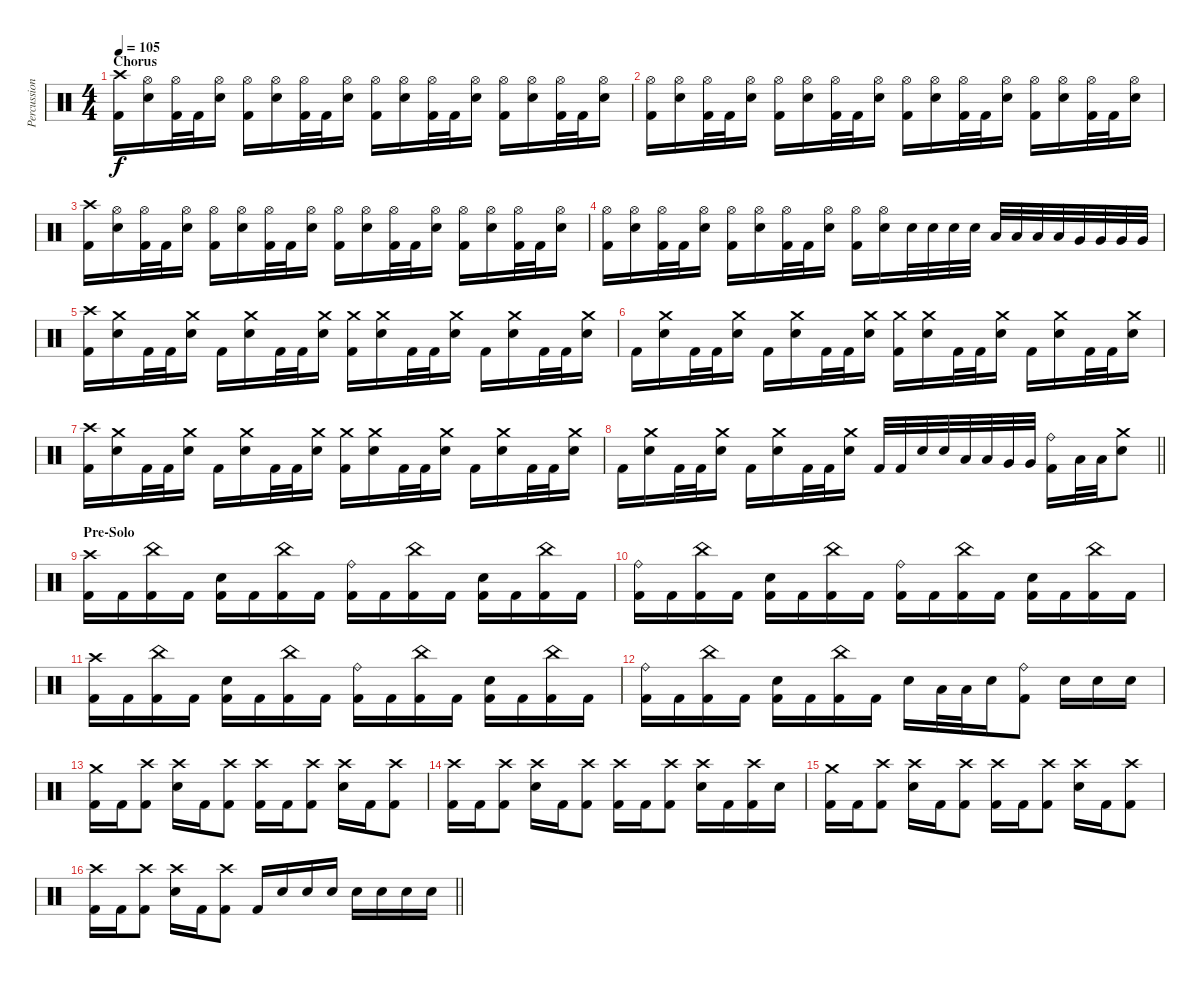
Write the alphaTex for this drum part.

\track ("Percussions" "Percussion") {instrument percussion}
\staff {score}
\articulation defaults
\ts (4 4)
\section ("" "Chorus")
\tempo 105
\clef neutral
\ks c
("Crash high (hit)" "Kick (hit) 2").16{dy f} ("Hi-Hat (open)" "Electric Snare (hit)").16 ("Hi-Hat (open)" "Kick (hit) 2").32 "Kick (hit) 2".32 ("Hi-Hat (open)" "Electric Snare (hit)").16 ("Hi-Hat (open)" "Kick (hit) 2").16 ("Hi-Hat (open)" "Electric Snare (hit)").16 ("Hi-Hat (open)" "Kick (hit) 2").32 "Kick (hit) 2".32 ("Hi-Hat (open)" "Electric Snare (hit)").16 ("Hi-Hat (open)" "Kick (hit) 2").16 ("Hi-Hat (open)" "Electric Snare (hit)").16 ("Hi-Hat (open)" "Kick (hit) 2").32 "Kick (hit) 2".32 ("Hi-Hat (open)" "Electric Snare (hit)").16 ("Hi-Hat (open)" "Kick (hit) 2").16 ("Hi-Hat (open)" "Electric Snare (hit)").16 ("Hi-Hat (open)" "Kick (hit) 2").32 "Kick (hit) 2".32 ("Hi-Hat (open)" "Electric Snare (hit)").16 |
("Hi-Hat (open)" "Kick (hit) 2").16 ("Hi-Hat (open)" "Electric Snare (hit)").16 ("Hi-Hat (open)" "Kick (hit) 2").32 "Kick (hit) 2".32 ("Hi-Hat (open)" "Electric Snare (hit)").16 ("Hi-Hat (open)" "Kick (hit) 2").16 ("Hi-Hat (open)" "Electric Snare (hit)").16 ("Hi-Hat (open)" "Kick (hit) 2").32 "Kick (hit) 2".32 ("Hi-Hat (open)" "Electric Snare (hit)").16 ("Hi-Hat (open)" "Kick (hit) 2").16 ("Hi-Hat (open)" "Electric Snare (hit)").16 ("Hi-Hat (open)" "Kick (hit) 2").32 "Kick (hit) 2".32 ("Hi-Hat (open)" "Electric Snare (hit)").16 ("Hi-Hat (open)" "Kick (hit) 2").16 ("Hi-Hat (open)" "Electric Snare (hit)").16 ("Hi-Hat (open)" "Kick (hit) 2").32 "Kick (hit) 2".32 ("Hi-Hat (open)" "Electric Snare (hit)").16 |
("Crash high (hit)" "Kick (hit) 2").16 ("Hi-Hat (open)" "Electric Snare (hit)").16 ("Hi-Hat (open)" "Kick (hit) 2").32 "Kick (hit) 2".32 ("Hi-Hat (open)" "Electric Snare (hit)").16 ("Hi-Hat (open)" "Kick (hit) 2").16 ("Hi-Hat (open)" "Electric Snare (hit)").16 ("Hi-Hat (open)" "Kick (hit) 2").32 "Kick (hit) 2".32 ("Hi-Hat (open)" "Electric Snare (hit)").16 ("Hi-Hat (open)" "Kick (hit) 2").16 ("Hi-Hat (open)" "Electric Snare (hit)").16 ("Hi-Hat (open)" "Kick (hit) 2").32 "Kick (hit) 2".32 ("Hi-Hat (open)" "Electric Snare (hit)").16 ("Hi-Hat (open)" "Kick (hit) 2").16 ("Hi-Hat (open)" "Electric Snare (hit)").16 ("Hi-Hat (open)" "Kick (hit) 2").32 "Kick (hit) 2".32 ("Hi-Hat (open)" "Electric Snare (hit)").16 |
("Hi-Hat (open)" "Kick (hit) 2").16 ("Hi-Hat (open)" "Electric Snare (hit)").16 ("Hi-Hat (open)" "Kick (hit) 2").32 "Kick (hit) 2".32 ("Hi-Hat (open)" "Electric Snare (hit)").16 ("Hi-Hat (open)" "Kick (hit) 2").16 ("Hi-Hat (open)" "Electric Snare (hit)").16 ("Hi-Hat (open)" "Kick (hit) 2").32 "Kick (hit) 2".32 ("Hi-Hat (open)" "Electric Snare (hit)").16 ("Hi-Hat (open)" "Kick (hit) 2").16 ("Hi-Hat (open)" "Electric Snare (hit)").16 "Electric Snare (hit)".32 "Electric Snare (hit)".32 "Electric Snare (hit)".32 "Electric Snare (hit)".32 "Low Tom (hit)".32 "Low Tom (hit)".32 "Low Tom (hit)".32 "Low Tom (hit)".32 "Very Low Tom (hit)".32 "Very Low Tom (hit)".32 "Very Low Tom (hit)".32 "Very Low Tom (hit)".32 |
("Crash high (hit)" "Kick (hit) 2").16 ("Crash medium (hit)" "Electric Snare (hit)").16 "Kick (hit) 2".32 "Kick (hit) 2".32 ("Crash medium (hit)" "Electric Snare (hit)").16 "Kick (hit) 2".16 ("Crash medium (hit)" "Electric Snare (hit)").16 "Kick (hit) 2".32 "Kick (hit) 2".32 ("Crash medium (hit)" "Electric Snare (hit)").16 ("Crash medium (hit)" "Kick (hit) 2").16 ("Crash medium (hit)" "Electric Snare (hit)").16 "Kick (hit) 2".32 "Kick (hit) 2".32 ("Crash medium (hit)" "Electric Snare (hit)").16 "Kick (hit) 2".16 ("Crash medium (hit)" "Electric Snare (hit)").16 "Kick (hit) 2".32 "Kick (hit) 2".32 ("Crash medium (hit)" "Electric Snare (hit)").16 |
"Kick (hit) 2".16 ("Crash medium (hit)" "Electric Snare (hit)").16 "Kick (hit) 2".32 "Kick (hit) 2".32 ("Crash medium (hit)" "Electric Snare (hit)").16 "Kick (hit) 2".16 ("Crash medium (hit)" "Electric Snare (hit)").16 "Kick (hit) 2".32 "Kick (hit) 2".32 ("Crash medium (hit)" "Electric Snare (hit)").16 ("Crash medium (hit)" "Kick (hit) 2").16 ("Crash medium (hit)" "Electric Snare (hit)").16 "Kick (hit) 2".32 "Kick (hit) 2".32 ("Crash medium (hit)" "Electric Snare (hit)").16 "Kick (hit) 2".16 ("Crash medium (hit)" "Electric Snare (hit)").16 "Kick (hit) 2".32 "Kick (hit) 2".32 ("Crash medium (hit)" "Electric Snare (hit)").16 |
("Crash high (hit)" "Kick (hit) 2").16 ("Crash medium (hit)" "Electric Snare (hit)").16 "Kick (hit) 2".32 "Kick (hit) 2".32 ("Crash medium (hit)" "Electric Snare (hit)").16 "Kick (hit) 2".16 ("Crash medium (hit)" "Electric Snare (hit)").16 "Kick (hit) 2".32 "Kick (hit) 2".32 ("Crash medium (hit)" "Electric Snare (hit)").16 ("Crash medium (hit)" "Kick (hit) 2").16 ("Crash medium (hit)" "Electric Snare (hit)").16 "Kick (hit) 2".32 "Kick (hit) 2".32 ("Crash medium (hit)" "Electric Snare (hit)").16 "Kick (hit) 2".16 ("Crash medium (hit)" "Electric Snare (hit)").16 "Kick (hit) 2".32 "Kick (hit) 2".32 ("Crash medium (hit)" "Electric Snare (hit)").16 |
\barLineRight lightlight "Kick (hit) 2".16
("Crash medium (hit)" "Electric Snare (hit)").16 "Kick (hit) 2".32 "Kick (hit) 2".32 ("Crash medium (hit)" "Electric Snare (hit)").16 "Kick (hit) 2".16 ("Crash medium (hit)" "Electric Snare (hit)").16 "Kick (hit) 2".32 "Kick (hit) 2".32 ("Crash medium (hit)" "Electric Snare (hit)").16 "Kick (hit) 2".32 "Kick (hit) 2".32 "Electric Snare (hit)".32 "Electric Snare (hit)".32 "Low Tom (hit)".32 "Low Tom (hit)".32 "Very Low Tom (hit)".32 "Very Low Tom (hit)".32 ("Ride (bell)" "Kick (hit) 2").16 "Low Floor Tom (hit)".32 "Low Floor Tom (hit)".32 ("Crash medium (hit)" "Electric Snare (hit)").8 |
\section ("" "Pre-Solo")
("Crash high (hit)" "Kick (hit) 2").16 "Kick (hit) 2".16 ("China (hit)" "Kick (hit) 2").16 "Kick (hit) 2".16 ("Electric Snare (hit)" "Kick (hit) 2").16 "Kick (hit) 2".16 ("China (hit)" "Kick (hit) 2").16 "Kick (hit) 2".16 ("Ride (bell)" "Kick (hit) 2").16 "Kick (hit) 2".16 ("China (hit)" "Kick (hit) 2").16 "Kick (hit) 2".16 ("Electric Snare (hit)" "Kick (hit) 2").16 "Kick (hit) 2".16 ("China (hit)" "Kick (hit) 2").16 "Kick (hit) 2".16 |
("Ride (bell)" "Kick (hit) 2").16 "Kick (hit) 2".16 ("China (hit)" "Kick (hit) 2").16 "Kick (hit) 2".16 ("Electric Snare (hit)" "Kick (hit) 2").16 "Kick (hit) 2".16 ("China (hit)" "Kick (hit) 2").16 "Kick (hit) 2".16 ("Ride (bell)" "Kick (hit) 2").16 "Kick (hit) 2".16 ("China (hit)" "Kick (hit) 2").16 "Kick (hit) 2".16 ("Electric Snare (hit)" "Kick (hit) 2").16 "Kick (hit) 2".16 ("China (hit)" "Kick (hit) 2").16 "Kick (hit) 2".16 |
("Crash high (hit)" "Kick (hit) 2").16 "Kick (hit) 2".16 ("China (hit)" "Kick (hit) 2").16 "Kick (hit) 2".16 ("Electric Snare (hit)" "Kick (hit) 2").16 "Kick (hit) 2".16 ("China (hit)" "Kick (hit) 2").16 "Kick (hit) 2".16 ("Ride (bell)" "Kick (hit) 2").16 "Kick (hit) 2".16 ("China (hit)" "Kick (hit) 2").16 "Kick (hit) 2".16 ("Electric Snare (hit)" "Kick (hit) 2").16 "Kick (hit) 2".16 ("China (hit)" "Kick (hit) 2").16 "Kick (hit) 2".16 |
("Ride (bell)" "Kick (hit) 2").16 "Kick (hit) 2".16 ("China (hit)" "Kick (hit) 2").16 "Kick (hit) 2".16 ("Electric Snare (hit)" "Kick (hit) 2").16 "Kick (hit) 2".16 ("China (hit)" "Kick (hit) 2").16 "Kick (hit) 2".16 "Electric Snare (hit)".16 "Low Tom (hit)".32 "Low Tom (hit)".32 "Electric Snare (hit)".16 ("Ride (bell)" "Kick (hit) 2").8 "Electric Snare (hit)".16 "Electric Snare (hit)".16 "Electric Snare (hit)".16 |
("Crash medium (hit)" "Kick (hit) 2").16 "Kick (hit) 2".16 ("Crash high (hit)" "Kick (hit) 2").8 ("Crash high (hit)" "Electric Snare (hit)").16 "Kick (hit) 2".16 ("Crash high (hit)" "Kick (hit) 2").8 ("Crash high (hit)" "Kick (hit) 2").16 "Kick (hit) 2".16 ("Crash high (hit)" "Kick (hit) 2").8 ("Crash high (hit)" "Electric Snare (hit)").16 "Kick (hit) 2".16 ("Crash high (hit)" "Kick (hit) 2").8 |
("Crash high (hit)" "Kick (hit) 2").16 "Kick (hit) 2".16 ("Crash high (hit)" "Kick (hit) 2").8 ("Crash high (hit)" "Electric Snare (hit)").16 "Kick (hit) 2".16 ("Crash high (hit)" "Kick (hit) 2").8 ("Crash high (hit)" "Kick (hit) 2").16 "Kick (hit) 2".16 ("Crash high (hit)" "Kick (hit) 2").8 ("Crash high (hit)" "Electric Snare (hit)").16 "Kick (hit) 2".16 ("Crash high (hit)" "Kick (hit) 2").16 "Electric Snare (hit)".16 |
("Crash medium (hit)" "Kick (hit) 2").16 "Kick (hit) 2".16 ("Crash high (hit)" "Kick (hit) 2").8 ("Crash high (hit)" "Electric Snare (hit)").16 "Kick (hit) 2".16 ("Crash high (hit)" "Kick (hit) 2").8 ("Crash high (hit)" "Kick (hit) 2").16 "Kick (hit) 2".16 ("Crash high (hit)" "Kick (hit) 2").8 ("Crash high (hit)" "Electric Snare (hit)").16 "Kick (hit) 2".16 ("Crash high (hit)" "Kick (hit) 2").8 |
\barLineRight lightlight
("Crash high (hit)" "Kick (hit) 2").16 "Kick (hit) 2".16 ("Crash high (hit)" "Kick (hit) 2").8 ("Crash high (hit)" "Electric Snare (hit)").16 "Kick (hit) 2".16 ("Crash high (hit)" "Kick (hit) 2").8 "Kick (hit) 2".16 "Electric Snare (hit)".16 "Electric Snare (hit)".16 "Electric Snare (hit)".16 "Electric Snare (hit)".16 "Electric Snare (hit)".16 "Electric Snare (hit)".16 "Electric Snare (hit)".16
